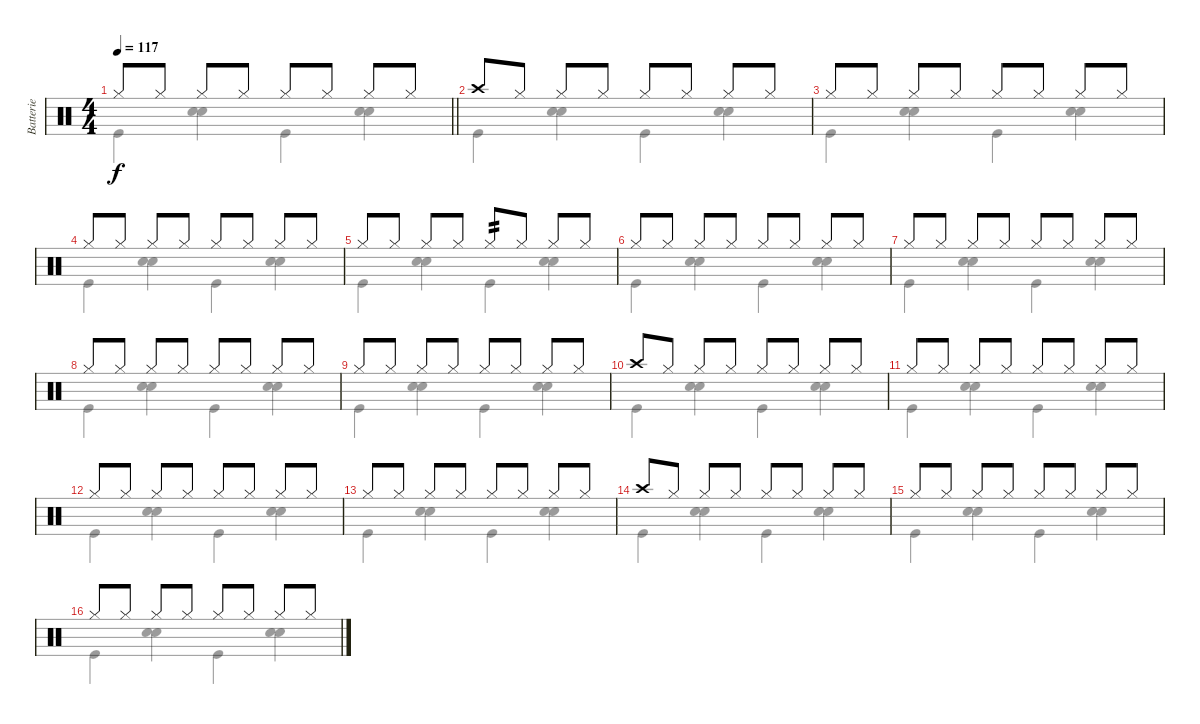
\track ("Batterie" "Batterie") {instrument percussion}
\staff {score}
\articulation defaults
\voice
\ts (4 4)
\tempo 117
\clef neutral
\barLineRight lightlight
\ks c "Hi-Hat (closed)".8{dy f} "Hi-Hat (closed)".8 "Hi-Hat (closed)".8 "Hi-Hat (closed)".8 "Hi-Hat (closed)".8 "Hi-Hat (closed)".8 "Hi-Hat (closed)".8 "Hi-Hat (closed)".8
|
"Crash high (hit)".8 "Hi-Hat (closed)".8 "Hi-Hat (closed)".8 "Hi-Hat (closed)".8 "Hi-Hat (closed)".8 "Hi-Hat (closed)".8 "Hi-Hat (closed)".8 "Hi-Hat (closed)".8 |
"Hi-Hat (closed)".8 "Hi-Hat (closed)".8 "Hi-Hat (closed)".8 "Hi-Hat (closed)".8 "Hi-Hat (closed)".8 "Hi-Hat (closed)".8 "Hi-Hat (closed)".8 "Hi-Hat (closed)".8 |
"Hi-Hat (closed)".8 "Hi-Hat (closed)".8 "Hi-Hat (closed)".8 "Hi-Hat (closed)".8 "Hi-Hat (closed)".8 "Hi-Hat (closed)".8 "Hi-Hat (closed)".8 "Hi-Hat (closed)".8 |
"Hi-Hat (closed)".8 "Hi-Hat (closed)".8 "Hi-Hat (closed)".8 "Hi-Hat (closed)".8 "Hi-Hat (closed)".8{tp 2} "Hi-Hat (closed)".8 "Hi-Hat (closed)".8 "Hi-Hat (closed)".8 |
"Hi-Hat (closed)".8 "Hi-Hat (closed)".8 "Hi-Hat (closed)".8 "Hi-Hat (closed)".8 "Hi-Hat (closed)".8 "Hi-Hat (closed)".8 "Hi-Hat (closed)".8 "Hi-Hat (closed)".8 |
"Hi-Hat (closed)".8 "Hi-Hat (closed)".8 "Hi-Hat (closed)".8 "Hi-Hat (closed)".8 "Hi-Hat (closed)".8 "Hi-Hat (closed)".8 "Hi-Hat (closed)".8 "Hi-Hat (closed)".8 |
"Hi-Hat (closed)".8 "Hi-Hat (closed)".8 "Hi-Hat (closed)".8 "Hi-Hat (closed)".8 "Hi-Hat (closed)".8 "Hi-Hat (closed)".8 "Hi-Hat (closed)".8 "Hi-Hat (closed)".8 |
"Hi-Hat (closed)".8 "Hi-Hat (closed)".8 "Hi-Hat (closed)".8 "Hi-Hat (closed)".8 "Hi-Hat (closed)".8 "Hi-Hat (closed)".8 "Hi-Hat (closed)".8 "Hi-Hat (closed)".8 |
"Crash high (hit)".8 "Hi-Hat (closed)".8 "Hi-Hat (closed)".8 "Hi-Hat (closed)".8 "Hi-Hat (closed)".8 "Hi-Hat (closed)".8 "Hi-Hat (closed)".8 "Hi-Hat (closed)".8 |
"Hi-Hat (closed)".8 "Hi-Hat (closed)".8 "Hi-Hat (closed)".8 "Hi-Hat (closed)".8 "Hi-Hat (closed)".8 "Hi-Hat (closed)".8 "Hi-Hat (closed)".8 "Hi-Hat (closed)".8 |
"Hi-Hat (closed)".8 "Hi-Hat (closed)".8 "Hi-Hat (closed)".8 "Hi-Hat (closed)".8 "Hi-Hat (closed)".8 "Hi-Hat (closed)".8 "Hi-Hat (closed)".8 "Hi-Hat (closed)".8 |
"Hi-Hat (closed)".8 "Hi-Hat (closed)".8 "Hi-Hat (closed)".8 "Hi-Hat (closed)".8 "Hi-Hat (closed)".8 "Hi-Hat (closed)".8 "Hi-Hat (closed)".8 "Hi-Hat (closed)".8 |
"Crash high (hit)".8 "Hi-Hat (closed)".8 "Hi-Hat (closed)".8 "Hi-Hat (closed)".8 "Hi-Hat (closed)".8 "Hi-Hat (closed)".8 "Hi-Hat (closed)".8 "Hi-Hat (closed)".8 |
"Hi-Hat (closed)".8 "Hi-Hat (closed)".8 "Hi-Hat (closed)".8 "Hi-Hat (closed)".8 "Hi-Hat (closed)".8 "Hi-Hat (closed)".8 "Hi-Hat (closed)".8 "Hi-Hat (closed)".8 |
"Hi-Hat (closed)".8 "Hi-Hat (closed)".8 "Hi-Hat (closed)".8 "Hi-Hat (closed)".8 "Hi-Hat (closed)".8 "Hi-Hat (closed)".8 "Hi-Hat (closed)".8 "Hi-Hat (closed)".8
\voice
\clef neutral
\ottava regular
\simile none
\barLineRight lightlight
\ks c "Kick (hit)".4{dy f}
("Hand Clap (hit)" "Snare (hit) 2").4 "Kick (hit)".4 ("Hand Clap (hit)" "Snare (hit) 2").4 |
"Kick (hit)".4 ("Hand Clap (hit)" "Snare (hit) 2").4 "Kick (hit)".4 ("Hand Clap (hit)" "Snare (hit) 2").4 |
"Kick (hit)".4 ("Hand Clap (hit)" "Snare (hit) 2").4 "Kick (hit)".4 ("Hand Clap (hit)" "Snare (hit) 2").4 |
"Kick (hit)".4 ("Hand Clap (hit)" "Snare (hit) 2").4 "Kick (hit)".4 ("Hand Clap (hit)" "Snare (hit) 2").4 |
"Kick (hit)".4 ("Hand Clap (hit)" "Snare (hit) 2").4 "Kick (hit)".4 ("Hand Clap (hit)" "Snare (hit) 2").4 |
"Kick (hit)".4 ("Hand Clap (hit)" "Snare (hit) 2").4 "Kick (hit)".4 ("Hand Clap (hit)" "Snare (hit) 2").4 |
"Kick (hit)".4 ("Hand Clap (hit)" "Snare (hit) 2").4 "Kick (hit)".4 ("Hand Clap (hit)" "Snare (hit) 2").4 |
"Kick (hit)".4 ("Hand Clap (hit)" "Snare (hit) 2").4 "Kick (hit)".4 ("Hand Clap (hit)" "Snare (hit) 2").4 |
"Kick (hit)".4 ("Hand Clap (hit)" "Snare (hit) 2").4 "Kick (hit)".4 ("Hand Clap (hit)" "Snare (hit) 2").4 |
"Kick (hit)".4 ("Hand Clap (hit)" "Snare (hit) 2").4 "Kick (hit)".4 ("Hand Clap (hit)" "Snare (hit) 2").4 |
"Kick (hit)".4 ("Hand Clap (hit)" "Snare (hit) 2").4 "Kick (hit)".4 ("Hand Clap (hit)" "Snare (hit) 2").4 |
"Kick (hit)".4 ("Hand Clap (hit)" "Snare (hit) 2").4 "Kick (hit)".4 ("Hand Clap (hit)" "Snare (hit) 2").4 |
"Kick (hit)".4 ("Hand Clap (hit)" "Snare (hit) 2").4 "Kick (hit)".4 ("Hand Clap (hit)" "Snare (hit) 2").4 |
"Kick (hit)".4 ("Hand Clap (hit)" "Snare (hit) 2").4 "Kick (hit)".4 ("Hand Clap (hit)" "Snare (hit) 2").4 |
"Kick (hit)".4 ("Hand Clap (hit)" "Snare (hit) 2").4 "Kick (hit)".4 ("Hand Clap (hit)" "Snare (hit) 2").4 |
"Kick (hit)".4 ("Hand Clap (hit)" "Snare (hit) 2").4 "Kick (hit)".4 ("Hand Clap (hit)" "Snare (hit) 2").4
